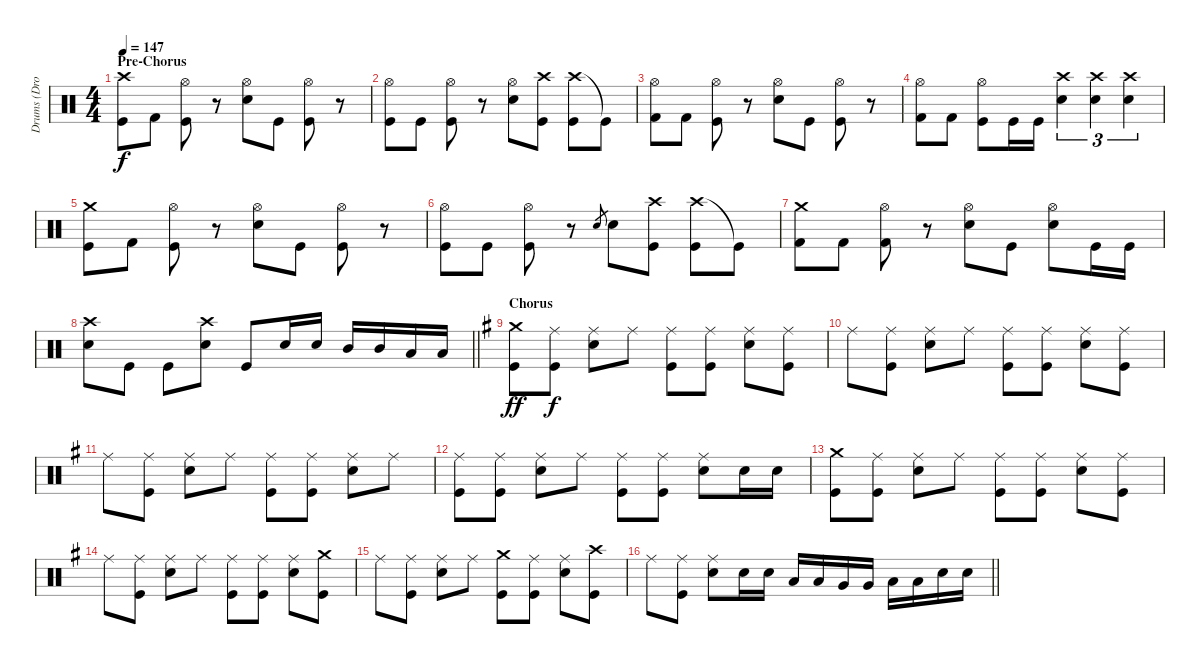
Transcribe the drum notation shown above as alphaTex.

\track ("Drums (Drover)" "Drums (Dro") {instrument percussion}
\staff {score}
\articulation defaults
\ts (4 4)
\section ("" "Pre-Chorus")
\tempo 147
\clef neutral
\ks c
("Crash high (hit)" "Kick (hit)").8{dy f} "Kick (hit) 2".8 ("Hi-Hat (open)" "Kick (hit)").8 r.8 ("Hi-Hat (open)" "Snare (hit) 2").8 "Kick (hit)".8 ("Hi-Hat (open)" "Kick (hit)").8 r.8 |
("Hi-Hat (open)" "Kick (hit)").8 "Kick (hit)".8 ("Hi-Hat (open)" "Kick (hit)").8 r.8 ("Hi-Hat (open)" "Snare (hit) 2").8 ("Crash high (hit)" "Kick (hit)").8 ("Crash high (hit)" "Kick (hit)").8 "Kick (hit)"{t}.8 |
("Hi-Hat (open)" "Kick (hit) 2").8 "Kick (hit) 2".8 ("Hi-Hat (open)" "Kick (hit)").8 r.8 ("Hi-Hat (open)" "Snare (hit) 2").8 "Kick (hit)".8 ("Hi-Hat (open)" "Kick (hit)").8 r.8 |
("Hi-Hat (open)" "Kick (hit) 2").8 "Kick (hit) 2".8 ("Hi-Hat (open)" "Kick (hit)").8 "Kick (hit)".16 "Kick (hit)".16 ("Crash high (hit)" "Snare (hit) 2").4{tu (3 2)} ("Crash high (hit)" "Snare (hit) 2").4{tu (3 2)} ("Crash high (hit)" "Snare (hit) 2").4{tu (3 2)} |
("Crash medium (hit)" "Kick (hit)").8 "Kick (hit) 2".8 ("Hi-Hat (open)" "Kick (hit)").8 r.8 ("Hi-Hat (open)" "Snare (hit) 2").8 "Kick (hit)".8 ("Hi-Hat (open)" "Kick (hit)").8 r.8 |
("Hi-Hat (open)" "Kick (hit)").8 "Kick (hit)".8 ("Hi-Hat (open)" "Kick (hit)").8 r.8 "Snare (hit) 2".8{gr} "Snare (hit) 2".8 ("Crash high (hit)" "Kick (hit)").8 ("Crash high (hit)" "Kick (hit)").8 "Kick (hit)"{t}.8 |
("Crash medium (hit)" "Kick (hit) 2").8 "Kick (hit) 2".8 ("Hi-Hat (open)" "Kick (hit) 2").8 r.8 ("Hi-Hat (open)" "Snare (hit) 2").8 "Kick (hit)".8 ("Hi-Hat (open)" "Snare (hit) 2").8 "Kick (hit)".16 "Kick (hit)".16 |
\barLineRight lightlight
("Crash high (hit)" "Snare (hit) 2").8 "Kick (hit)".8 "Kick (hit)".8 ("Crash high (hit)" "Snare (hit) 2").8 "Kick (hit)".8 "Snare (hit) 2".16 "Snare (hit) 2".16 "Mid Tom (hit)".16 "Mid Tom (hit)".16 "Low Tom (hit)".16 "Low Tom (hit)".16 |
\section ("" "Chorus")
\ks g
("Crash medium (hit)" "Kick (hit)").8{dy ff} ("Ride (middle)" "Kick (hit)").8{dy f} ("Ride (middle)" "Snare (hit) 2").8 "Ride (middle)".8 ("Ride (middle)" "Kick (hit)").8 ("Ride (middle)" "Kick (hit)").8 ("Ride (middle)" "Snare (hit) 2").8 ("Ride (middle)" "Kick (hit)").8 |
"Ride (middle)".8 ("Ride (middle)" "Kick (hit)").8 ("Ride (middle)" "Snare (hit) 2").8 "Ride (middle)".8 ("Ride (middle)" "Kick (hit)").8 ("Ride (middle)" "Kick (hit)").8 ("Ride (middle)" "Snare (hit) 2").8 ("Ride (middle)" "Kick (hit)").8 |
"Ride (middle)".8 ("Ride (middle)" "Kick (hit)").8 ("Ride (middle)" "Snare (hit) 2").8 "Ride (middle)".8 ("Ride (middle)" "Kick (hit)").8 ("Ride (middle)" "Kick (hit)").8 ("Ride (middle)" "Snare (hit) 2").8 "Ride (middle)".8 |
("Ride (middle)" "Kick (hit)").8 ("Ride (middle)" "Kick (hit)").8 ("Ride (middle)" "Snare (hit) 2").8 "Ride (middle)".8 ("Ride (middle)" "Kick (hit)").8 ("Ride (middle)" "Kick (hit)").8 ("Ride (middle)" "Snare (hit) 2").8 "Snare (hit) 2".16 "Snare (hit) 2".16 |
("Crash medium (hit)" "Kick (hit)").8 ("Ride (middle)" "Kick (hit)").8 ("Ride (middle)" "Snare (hit) 2").8 "Ride (middle)".8 ("Ride (middle)" "Kick (hit)").8 ("Ride (middle)" "Kick (hit)").8 ("Ride (middle)" "Snare (hit) 2").8 ("Ride (middle)" "Kick (hit)").8 |
"Ride (middle)".8 ("Ride (middle)" "Kick (hit)").8 ("Ride (middle)" "Snare (hit) 2").8 "Ride (middle)".8 ("Ride (middle)" "Kick (hit)").8 ("Ride (middle)" "Kick (hit)").8 ("Ride (middle)" "Snare (hit) 2").8 ("Crash medium (hit)" "Kick (hit)").8 |
"Ride (middle)".8 ("Ride (middle)" "Kick (hit)").8 ("Ride (middle)" "Snare (hit) 2").8 "Ride (middle)".8 ("Crash medium (hit)" "Kick (hit)").8 ("Ride (middle)" "Kick (hit)").8 ("Ride (middle)" "Snare (hit) 2").8 ("Crash high (hit)" "Kick (hit)").8 |
\barLineRight lightlight "Ride (middle)".8
("Ride (middle)" "Kick (hit)").8 ("Ride (middle)" "Snare (hit) 2").8 "Snare (hit) 2".16 "Snare (hit) 2".16 "Low Tom (hit)".16 "Low Tom (hit)".16 "Very Low Tom (hit)".16 "Very Low Tom (hit)".16 "Low Floor Tom (hit)".16 "Low Floor Tom (hit)".16 "Snare (hit) 2".16 "Snare (hit) 2".16
